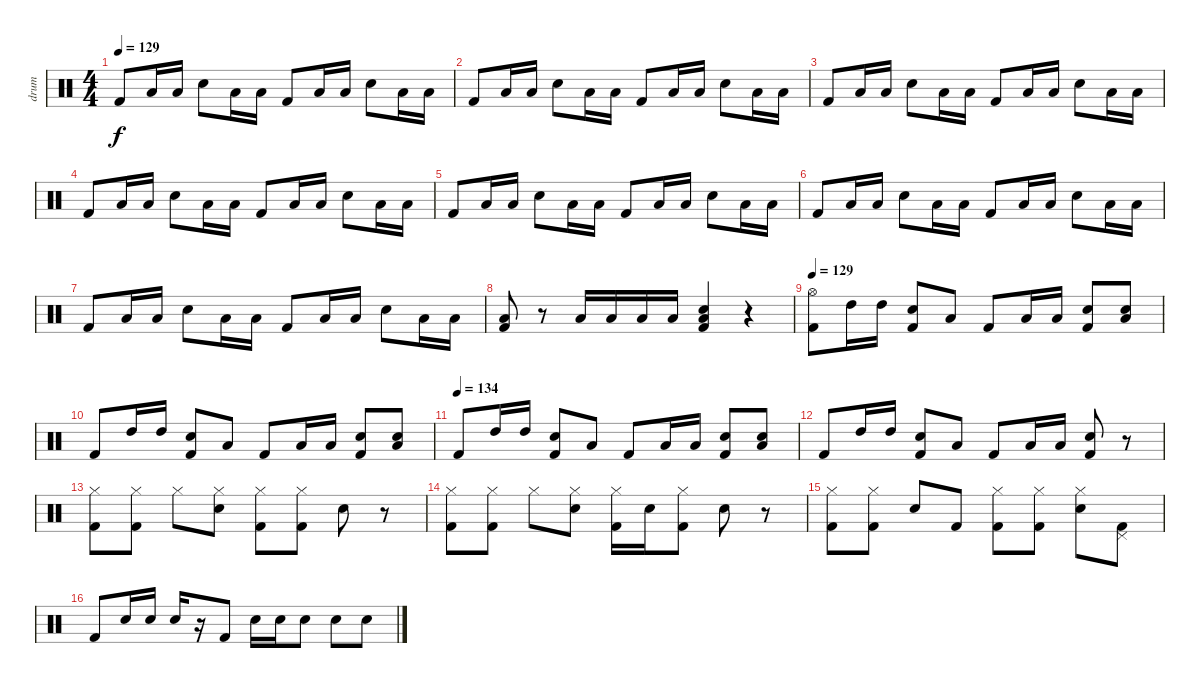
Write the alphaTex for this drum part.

\track ("drum" "drum") {instrument percussion}
\staff {score}
\articulation defaults
\ts (4 4)
\tempo 129
\clef neutral
\ks c "Kick (hit) 2".8{dy f} "Low Tom (hit)".16 "Low Tom (hit)".16 "Electric Snare (hit)".8 "Low Tom (hit)".16 "Low Tom (hit)".16 "Kick (hit) 2".8 "Low Tom (hit)".16 "Low Tom (hit)".16 "Electric Snare (hit)".8 "Low Tom (hit)".16 "Low Tom (hit)".16
|
"Kick (hit) 2".8 "Low Tom (hit)".16 "Low Tom (hit)".16 "Electric Snare (hit)".8 "Low Tom (hit)".16 "Low Tom (hit)".16 "Kick (hit) 2".8 "Low Tom (hit)".16 "Low Tom (hit)".16 "Electric Snare (hit)".8 "Low Tom (hit)".16 "Low Tom (hit)".16 |
"Kick (hit) 2".8 "Low Tom (hit)".16 "Low Tom (hit)".16 "Electric Snare (hit)".8 "Low Tom (hit)".16 "Low Tom (hit)".16 "Kick (hit) 2".8 "Low Tom (hit)".16 "Low Tom (hit)".16 "Electric Snare (hit)".8 "Low Tom (hit)".16 "Low Tom (hit)".16 |
"Kick (hit) 2".8 "Low Tom (hit)".16 "Low Tom (hit)".16 "Electric Snare (hit)".8 "Low Tom (hit)".16 "Low Tom (hit)".16 "Kick (hit) 2".8 "Low Tom (hit)".16 "Low Tom (hit)".16 "Electric Snare (hit)".8 "Low Tom (hit)".16 "Low Tom (hit)".16 |
"Kick (hit) 2".8 "Low Tom (hit)".16 "Low Tom (hit)".16 "Electric Snare (hit)".8 "Low Tom (hit)".16 "Low Tom (hit)".16 "Kick (hit) 2".8 "Low Tom (hit)".16 "Low Tom (hit)".16 "Electric Snare (hit)".8 "Low Tom (hit)".16 "Low Tom (hit)".16 |
"Kick (hit) 2".8 "Low Tom (hit)".16 "Low Tom (hit)".16 "Electric Snare (hit)".8 "Low Tom (hit)".16 "Low Tom (hit)".16 "Kick (hit) 2".8 "Low Tom (hit)".16 "Low Tom (hit)".16 "Electric Snare (hit)".8 "Low Tom (hit)".16 "Low Tom (hit)".16 |
"Kick (hit) 2".8 "Low Tom (hit)".16 "Low Tom (hit)".16 "Electric Snare (hit)".8 "Low Tom (hit)".16 "Low Tom (hit)".16 "Kick (hit) 2".8 "Low Tom (hit)".16 "Low Tom (hit)".16 "Electric Snare (hit)".8 "Low Tom (hit)".16 "Low Tom (hit)".16 |
("Low Tom (hit)" "Kick (hit) 2").8 r.8 "Low Tom (hit)".16 "Low Tom (hit)".16 "Low Tom (hit)".16 "Low Tom (hit)".16 ("Low Tom (hit)" "Electric Snare (hit)" "Kick (hit) 2").4 r.4 |
\tempo 129
("Hi-Hat (open)" "Kick (hit) 2").8 "High Tom (hit)".16 "High Tom (hit)".16 ("Electric Snare (hit)" "Kick (hit) 2").8 "Low Tom (hit)".8 "Kick (hit) 2".8 "Low Tom (hit)".16 "Low Tom (hit)".16 ("Electric Snare (hit)" "Kick (hit) 2").8 ("Electric Snare (hit)" "Low Tom (hit)").8 |
"Kick (hit) 2".8 "High Tom (hit)".16 "High Tom (hit)".16 ("Electric Snare (hit)" "Kick (hit) 2").8 "Low Tom (hit)".8 "Kick (hit) 2".8 "Low Tom (hit)".16 "Low Tom (hit)".16 ("Electric Snare (hit)" "Kick (hit) 2").8 ("Electric Snare (hit)" "Low Tom (hit)").8 |
\tempo (134)
"Kick (hit) 2".8 "High Tom (hit)".16 "High Tom (hit)".16 ("Electric Snare (hit)" "Kick (hit) 2").8 "Low Tom (hit)".8 "Kick (hit) 2".8 "Low Tom (hit)".16 "Low Tom (hit)".16 ("Electric Snare (hit)" "Kick (hit) 2").8 ("Electric Snare (hit)" "Low Tom (hit)").8 |
"Kick (hit) 2".8 "High Tom (hit)".16 "High Tom (hit)".16 ("Electric Snare (hit)" "Kick (hit) 2").8 "Low Tom (hit)".8 "Kick (hit) 2".8 "Low Tom (hit)".16 "Low Tom (hit)".16 ("Electric Snare (hit)" "Kick (hit) 2").8 r.8 |
("Hi-Hat (closed)" "Kick (hit) 2").8 ("Hi-Hat (closed)" "Kick (hit) 2").8 "Hi-Hat (closed)".8 ("Hi-Hat (closed)" "Electric Snare (hit)").8 ("Hi-Hat (closed)" "Kick (hit) 2").8 ("Hi-Hat (closed)" "Kick (hit) 2").8 "Electric Snare (hit)".8 r.8 |
("Hi-Hat (closed)" "Kick (hit) 2").8 ("Hi-Hat (closed)" "Kick (hit) 2").8 "Hi-Hat (closed)".8 ("Hi-Hat (closed)" "Electric Snare (hit)").8 ("Hi-Hat (closed)" "Kick (hit) 2").16 "Electric Snare (hit)".16 ("Hi-Hat (closed)" "Kick (hit) 2").8 "Electric Snare (hit)".8 r.8 |
("Hi-Hat (closed)" "Kick (hit) 2").8 ("Hi-Hat (closed)" "Kick (hit) 2").8 "Electric Snare (hit)".8 "Kick (hit) 2".8 ("Hi-Hat (closed)" "Kick (hit) 2").8 ("Hi-Hat (closed)" "Kick (hit) 2").8 ("Hi-Hat (closed)" "Electric Snare (hit)").8 ("Pedal Hi-Hat (hit)" "Kick (hit) 2").8 |
"Kick (hit) 2".8 "Electric Snare (hit)".16 "Electric Snare (hit)".16 "Electric Snare (hit)".16 r.16 "Kick (hit) 2".8 "Electric Snare (hit)".16 "Electric Snare (hit)".16 "Electric Snare (hit)".8 "Electric Snare (hit)".8 "Electric Snare (hit)".8
